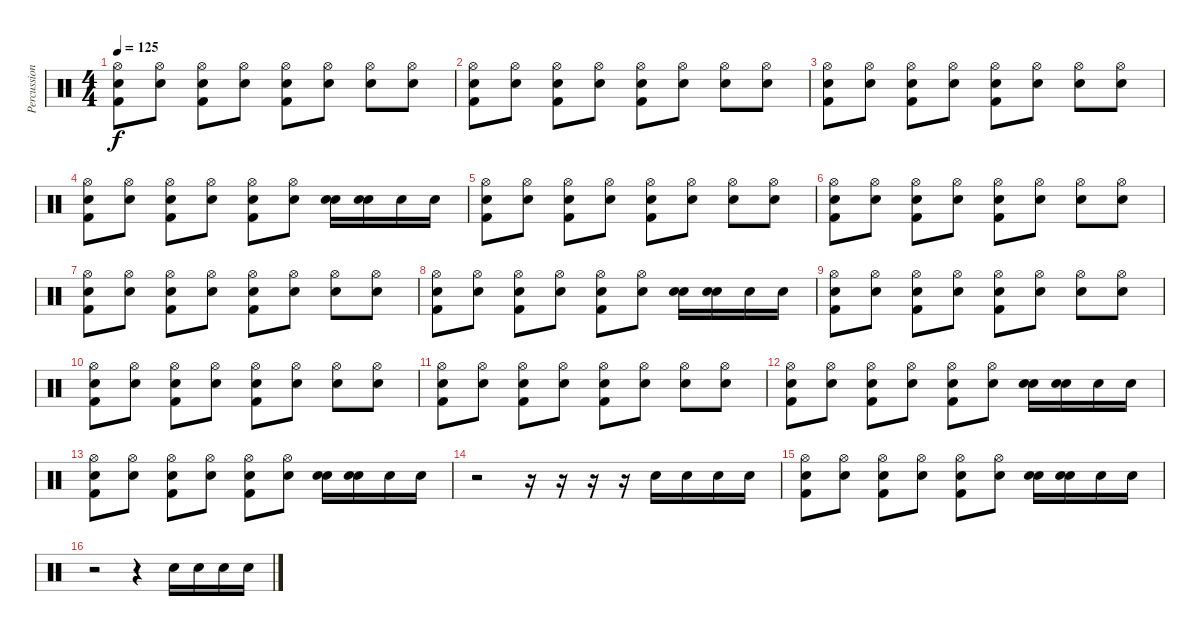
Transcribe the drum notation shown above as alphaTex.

\track ("Percussions" "Percussion") {instrument percussion}
\staff {score}
\articulation defaults
\ts (4 4)
\tempo 125
\clef neutral
\ks c
("Hi-Hat (open)" "Snare (hit)" "Kick (hit) 2").8{dy f} ("Hi-Hat (open)" "Snare (hit) 2").8 ("Hi-Hat (open)" "Snare (hit)" "Kick (hit) 2").8 ("Hi-Hat (open)" "Snare (hit) 2").8 ("Hi-Hat (open)" "Snare (hit)" "Kick (hit) 2").8 ("Hi-Hat (open)" "Snare (hit) 2").8 ("Hi-Hat (open)" "Snare (hit)").8 ("Hi-Hat (open)" "Snare (hit) 2").8 |
("Hi-Hat (open)" "Snare (hit)" "Kick (hit) 2").8 ("Hi-Hat (open)" "Snare (hit) 2").8 ("Hi-Hat (open)" "Snare (hit)" "Kick (hit) 2").8 ("Hi-Hat (open)" "Snare (hit) 2").8 ("Hi-Hat (open)" "Snare (hit)" "Kick (hit) 2").8 ("Hi-Hat (open)" "Snare (hit) 2").8 ("Hi-Hat (open)" "Snare (hit)").8 ("Hi-Hat (open)" "Snare (hit) 2").8 |
("Hi-Hat (open)" "Snare (hit)" "Kick (hit) 2").8 ("Hi-Hat (open)" "Snare (hit) 2").8 ("Hi-Hat (open)" "Snare (hit)" "Kick (hit) 2").8 ("Hi-Hat (open)" "Snare (hit) 2").8 ("Hi-Hat (open)" "Snare (hit)" "Kick (hit) 2").8 ("Hi-Hat (open)" "Snare (hit) 2").8 ("Hi-Hat (open)" "Snare (hit)").8 ("Hi-Hat (open)" "Snare (hit) 2").8 |
("Hi-Hat (open)" "Snare (hit)" "Kick (hit) 2").8 ("Hi-Hat (open)" "Snare (hit) 2").8 ("Hi-Hat (open)" "Snare (hit)" "Kick (hit) 2").8 ("Hi-Hat (open)" "Snare (hit) 2").8 ("Hi-Hat (open)" "Snare (hit)" "Kick (hit) 2").8 ("Hi-Hat (open)" "Snare (hit) 2").8 ("Snare (hit)" "Snare (hit) 2").16 ("Snare (hit)" "Snare (hit) 2").16 "Snare (hit) 2".16 "Snare (hit) 2".16 |
("Hi-Hat (open)" "Snare (hit)" "Kick (hit) 2").8 ("Hi-Hat (open)" "Snare (hit) 2").8 ("Hi-Hat (open)" "Snare (hit)" "Kick (hit) 2").8 ("Hi-Hat (open)" "Snare (hit) 2").8 ("Hi-Hat (open)" "Snare (hit)" "Kick (hit) 2").8 ("Hi-Hat (open)" "Snare (hit) 2").8 ("Hi-Hat (open)" "Snare (hit)").8 ("Hi-Hat (open)" "Snare (hit) 2").8 |
("Hi-Hat (open)" "Snare (hit)" "Kick (hit) 2").8 ("Hi-Hat (open)" "Snare (hit) 2").8 ("Hi-Hat (open)" "Snare (hit)" "Kick (hit) 2").8 ("Hi-Hat (open)" "Snare (hit) 2").8 ("Hi-Hat (open)" "Snare (hit)" "Kick (hit) 2").8 ("Hi-Hat (open)" "Snare (hit) 2").8 ("Hi-Hat (open)" "Snare (hit)").8 ("Hi-Hat (open)" "Snare (hit) 2").8 |
("Hi-Hat (open)" "Snare (hit)" "Kick (hit) 2").8 ("Hi-Hat (open)" "Snare (hit) 2").8 ("Hi-Hat (open)" "Snare (hit)" "Kick (hit) 2").8 ("Hi-Hat (open)" "Snare (hit) 2").8 ("Hi-Hat (open)" "Snare (hit)" "Kick (hit) 2").8 ("Hi-Hat (open)" "Snare (hit) 2").8 ("Hi-Hat (open)" "Snare (hit)").8 ("Hi-Hat (open)" "Snare (hit) 2").8 |
("Hi-Hat (open)" "Snare (hit)" "Kick (hit) 2").8 ("Hi-Hat (open)" "Snare (hit) 2").8 ("Hi-Hat (open)" "Snare (hit)" "Kick (hit) 2").8 ("Hi-Hat (open)" "Snare (hit) 2").8 ("Hi-Hat (open)" "Snare (hit)" "Kick (hit) 2").8 ("Hi-Hat (open)" "Snare (hit) 2").8 ("Snare (hit)" "Snare (hit) 2").16 ("Snare (hit)" "Snare (hit) 2").16 "Snare (hit) 2".16 "Snare (hit) 2".16 |
("Hi-Hat (open)" "Snare (hit)" "Kick (hit) 2").8 ("Hi-Hat (open)" "Snare (hit) 2").8 ("Hi-Hat (open)" "Snare (hit)" "Kick (hit) 2").8 ("Hi-Hat (open)" "Snare (hit) 2").8 ("Hi-Hat (open)" "Snare (hit)" "Kick (hit) 2").8 ("Hi-Hat (open)" "Snare (hit) 2").8 ("Hi-Hat (open)" "Snare (hit)").8 ("Hi-Hat (open)" "Snare (hit) 2").8 |
("Hi-Hat (open)" "Snare (hit)" "Kick (hit) 2").8 ("Hi-Hat (open)" "Snare (hit) 2").8 ("Hi-Hat (open)" "Snare (hit)" "Kick (hit) 2").8 ("Hi-Hat (open)" "Snare (hit) 2").8 ("Hi-Hat (open)" "Snare (hit)" "Kick (hit) 2").8 ("Hi-Hat (open)" "Snare (hit) 2").8 ("Hi-Hat (open)" "Snare (hit)").8 ("Hi-Hat (open)" "Snare (hit) 2").8 |
("Hi-Hat (open)" "Snare (hit)" "Kick (hit) 2").8 ("Hi-Hat (open)" "Snare (hit) 2").8 ("Hi-Hat (open)" "Snare (hit)" "Kick (hit) 2").8 ("Hi-Hat (open)" "Snare (hit) 2").8 ("Hi-Hat (open)" "Snare (hit)" "Kick (hit) 2").8 ("Hi-Hat (open)" "Snare (hit) 2").8 ("Hi-Hat (open)" "Snare (hit)").8 ("Hi-Hat (open)" "Snare (hit) 2").8 |
("Hi-Hat (open)" "Snare (hit)" "Kick (hit) 2").8 ("Hi-Hat (open)" "Snare (hit) 2").8 ("Hi-Hat (open)" "Snare (hit)" "Kick (hit) 2").8 ("Hi-Hat (open)" "Snare (hit) 2").8 ("Hi-Hat (open)" "Snare (hit)" "Kick (hit) 2").8 ("Hi-Hat (open)" "Snare (hit) 2").8 ("Snare (hit)" "Snare (hit) 2").16 ("Snare (hit)" "Snare (hit) 2").16 "Snare (hit) 2".16 "Snare (hit) 2".16 |
("Hi-Hat (open)" "Snare (hit)" "Kick (hit) 2").8 ("Hi-Hat (open)" "Snare (hit) 2").8 ("Hi-Hat (open)" "Snare (hit)" "Kick (hit) 2").8 ("Hi-Hat (open)" "Snare (hit) 2").8 ("Hi-Hat (open)" "Snare (hit)" "Kick (hit) 2").8 ("Hi-Hat (open)" "Snare (hit) 2").8 ("Snare (hit)" "Snare (hit) 2").16 ("Snare (hit)" "Snare (hit) 2").16 "Snare (hit) 2".16 "Snare (hit) 2".16 |
r.2 r.16 r.16 r.16 r.16 "Snare (hit) 2".16 "Snare (hit) 2".16 "Snare (hit) 2".16 "Snare (hit) 2".16 |
("Hi-Hat (open)" "Snare (hit)" "Kick (hit) 2").8 ("Hi-Hat (open)" "Snare (hit) 2").8 ("Hi-Hat (open)" "Snare (hit)" "Kick (hit) 2").8 ("Hi-Hat (open)" "Snare (hit) 2").8 ("Hi-Hat (open)" "Snare (hit)" "Kick (hit) 2").8 ("Hi-Hat (open)" "Snare (hit) 2").8 ("Snare (hit)" "Snare (hit) 2").16 ("Snare (hit)" "Snare (hit) 2").16 "Snare (hit) 2".16 "Snare (hit) 2".16 |
r.2 r.4 "Snare (hit) 2".16 "Snare (hit) 2".16 "Snare (hit) 2".16 "Snare (hit) 2".16
